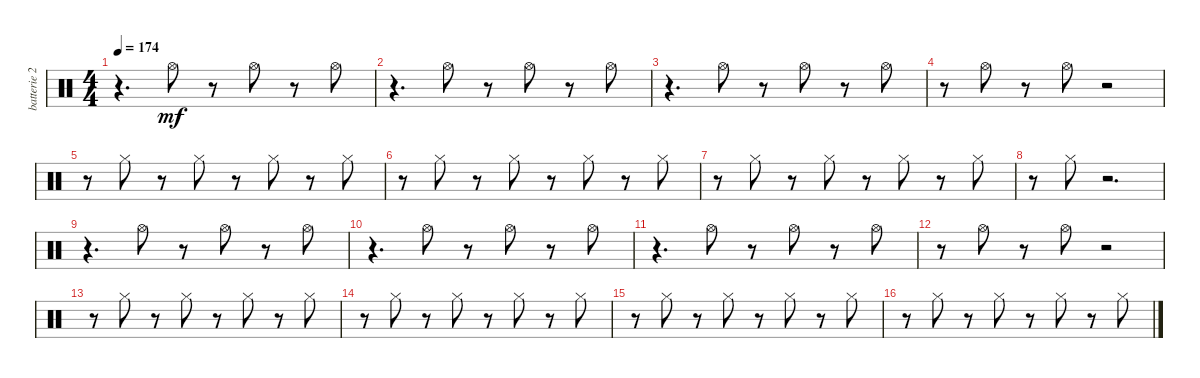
\track ("batterie 2" "batterie 2") {instrument percussion}
\staff {score}
\articulation defaults
\ts (4 4)
\tempo 174
\clef neutral
\ks c
r.4{d dy mf} "Hi-Hat (open)".8 r.8 "Hi-Hat (open)".8 r.8 "Hi-Hat (open)".8 |
r.4{d} "Hi-Hat (open)".8 r.8 "Hi-Hat (open)".8 r.8 "Hi-Hat (open)".8 |
r.4{d} "Hi-Hat (open)".8 r.8 "Hi-Hat (open)".8 r.8 "Hi-Hat (open)".8 |
r.8 "Hi-Hat (open)".8 r.8 "Hi-Hat (open)".8 r.2 |
r.8 "Hi-Hat (closed)".8 r.8 "Hi-Hat (closed)".8 r.8 "Hi-Hat (closed)".8 r.8 "Hi-Hat (closed)".8 |
r.8 "Hi-Hat (closed)".8 r.8 "Hi-Hat (closed)".8 r.8 "Hi-Hat (closed)".8 r.8 "Hi-Hat (closed)".8 |
r.8 "Hi-Hat (closed)".8 r.8 "Hi-Hat (closed)".8 r.8 "Hi-Hat (closed)".8 r.8 "Hi-Hat (closed)".8 |
r.8 "Hi-Hat (closed)".8 r.2{d} |
r.4{d} "Hi-Hat (open)".8 r.8 "Hi-Hat (open)".8 r.8 "Hi-Hat (open)".8 |
r.4{d} "Hi-Hat (open)".8 r.8 "Hi-Hat (open)".8 r.8 "Hi-Hat (open)".8 |
r.4{d} "Hi-Hat (open)".8 r.8 "Hi-Hat (open)".8 r.8 "Hi-Hat (open)".8 |
r.8 "Hi-Hat (open)".8 r.8 "Hi-Hat (open)".8 r.2 |
r.8 "Hi-Hat (closed)".8 r.8 "Hi-Hat (closed)".8 r.8 "Hi-Hat (closed)".8 r.8 "Hi-Hat (closed)".8 |
r.8 "Hi-Hat (closed)".8 r.8 "Hi-Hat (closed)".8 r.8 "Hi-Hat (closed)".8 r.8 "Hi-Hat (closed)".8 |
r.8 "Hi-Hat (closed)".8 r.8 "Hi-Hat (closed)".8 r.8 "Hi-Hat (closed)".8 r.8 "Hi-Hat (closed)".8 |
r.8 "Hi-Hat (closed)".8 r.8 "Hi-Hat (closed)".8 r.8 "Hi-Hat (closed)".8 r.8 "Hi-Hat (closed)".8
